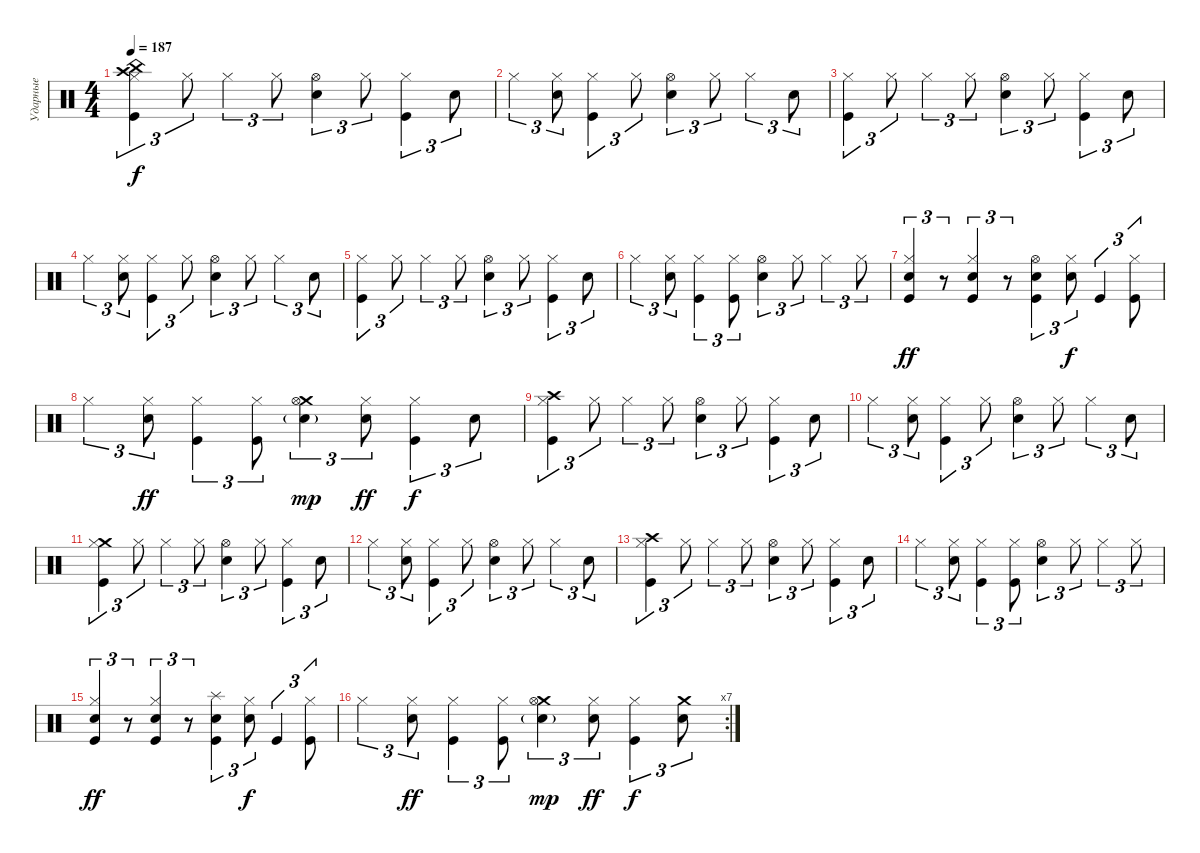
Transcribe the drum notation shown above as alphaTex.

\track ("Ударные" "Ударные") {instrument percussion}
\staff {score}
\articulation defaults
\ts (4 4)
\tempo 187
\clef neutral
\ks c
("Kick (hit)" "Crash high (hit)" "China (hit)" "Hi-Hat (closed)").4{tu (3 2) dy f} "Hi-Hat (closed)".8{tu (3 2)} "Hi-Hat (closed)".4{tu (3 2)} "Hi-Hat (closed)".8{tu (3 2)} ("Snare (hit) 2" "Hi-Hat (open)").4{tu (3 2)} "Hi-Hat (closed)".8{tu (3 2)} ("Kick (hit)" "Hi-Hat (closed)").4{tu (3 2)} "Snare (hit) 2".8{tu (3 2)} |
"Hi-Hat (closed)".4{tu (3 2)} ("Snare (hit) 2" "Hi-Hat (closed)").8{tu (3 2)} ("Kick (hit)" "Hi-Hat (closed)").4{tu (3 2)} "Hi-Hat (closed)".8{tu (3 2)} ("Snare (hit) 2" "Hi-Hat (open)").4{tu (3 2)} "Hi-Hat (closed)".8{tu (3 2)} "Hi-Hat (closed)".4{tu (3 2)} "Snare (hit) 2".8{tu (3 2)} |
("Kick (hit)" "Hi-Hat (closed)").4{tu (3 2)} "Hi-Hat (closed)".8{tu (3 2)} "Hi-Hat (closed)".4{tu (3 2)} "Hi-Hat (closed)".8{tu (3 2)} ("Snare (hit) 2" "Hi-Hat (open)").4{tu (3 2)} "Hi-Hat (closed)".8{tu (3 2)} ("Kick (hit)" "Hi-Hat (closed)").4{tu (3 2)} "Snare (hit) 2".8{tu (3 2)} |
"Hi-Hat (closed)".4{tu (3 2)} ("Snare (hit) 2" "Hi-Hat (closed)").8{tu (3 2)} ("Kick (hit)" "Hi-Hat (closed)").4{tu (3 2)} "Hi-Hat (closed)".8{tu (3 2)} ("Snare (hit) 2" "Hi-Hat (open)").4{tu (3 2)} "Hi-Hat (closed)".8{tu (3 2)} "Hi-Hat (closed)".4{tu (3 2)} "Snare (hit) 2".8{tu (3 2)} |
("Kick (hit)" "Hi-Hat (closed)").4{tu (3 2)} "Hi-Hat (closed)".8{tu (3 2)} "Hi-Hat (closed)".4{tu (3 2)} "Hi-Hat (closed)".8{tu (3 2)} ("Snare (hit) 2" "Hi-Hat (open)").4{tu (3 2)} "Hi-Hat (closed)".8{tu (3 2)} ("Kick (hit)" "Hi-Hat (closed)").4{tu (3 2)} "Snare (hit) 2".8{tu (3 2)} |
"Hi-Hat (closed)".4{tu (3 2)} ("Snare (hit) 2" "Hi-Hat (closed)").8{tu (3 2)} ("Kick (hit)" "Hi-Hat (closed)").4{tu (3 2)} ("Kick (hit)" "Hi-Hat (closed)").8{tu (3 2)} ("Snare (hit) 2" "Hi-Hat (open)").4{tu (3 2)} "Hi-Hat (closed)".8{tu (3 2)} "Hi-Hat (closed)".4{tu (3 2)} "Hi-Hat (closed)".8{tu (3 2)} |
("Kick (hit)" "Snare (hit) 2" "Hi-Hat (closed)").4{tu (3 2) dy ff} r.8{tu (3 2)} ("Kick (hit)" "Snare (hit) 2" "Hi-Hat (closed)").4{tu (3 2)} r.8{tu (3 2)} ("Kick (hit)" "Snare (hit) 2" "Hi-Hat (open)").4{tu (3 2)} ("Snare (hit) 2" "Hi-Hat (closed)").8{tu (3 2) dy f} "Kick (hit)".4{tu (3 2)} ("Kick (hit)" "Hi-Hat (closed)").8{tu (3 2)} |
"Hi-Hat (closed)".4{tu (3 2)} ("Snare (hit) 2" "Hi-Hat (closed)").8{tu (3 2) dy ff} ("Kick (hit)" "Hi-Hat (closed)").4{tu (3 2)} ("Kick (hit)" "Hi-Hat (closed)").8{tu (3 2)} ("Crash medium (hit)" "Snare (hit) 2"{g} "Hi-Hat (open)").4{tu (3 2) dy mp} ("Snare (hit) 2" "Hi-Hat (closed)").8{tu (3 2) dy ff} ("Kick (hit)" "Hi-Hat (closed)").4{tu (3 2) dy f} "Snare (hit) 2".8{tu (3 2)} |
("Kick (hit)" "Crash high (hit)" "Hi-Hat (closed)").4{tu (3 2)} "Hi-Hat (closed)".8{tu (3 2)} "Hi-Hat (closed)".4{tu (3 2)} "Hi-Hat (closed)".8{tu (3 2)} ("Snare (hit) 2" "Hi-Hat (open)").4{tu (3 2)} "Hi-Hat (closed)".8{tu (3 2)} ("Kick (hit)" "Hi-Hat (closed)").4{tu (3 2)} "Snare (hit) 2".8{tu (3 2)} |
"Hi-Hat (closed)".4{tu (3 2)} ("Snare (hit) 2" "Hi-Hat (closed)").8{tu (3 2)} ("Kick (hit)" "Hi-Hat (closed)").4{tu (3 2)} "Hi-Hat (closed)".8{tu (3 2)} ("Snare (hit) 2" "Hi-Hat (open)").4{tu (3 2)} "Hi-Hat (closed)".8{tu (3 2)} "Hi-Hat (closed)".4{tu (3 2)} "Snare (hit) 2".8{tu (3 2)} |
("Kick (hit)" "Crash medium (hit)" "Hi-Hat (closed)").4{tu (3 2)} "Hi-Hat (closed)".8{tu (3 2)} "Hi-Hat (closed)".4{tu (3 2)} "Hi-Hat (closed)".8{tu (3 2)} ("Snare (hit) 2" "Hi-Hat (open)").4{tu (3 2)} "Hi-Hat (closed)".8{tu (3 2)} ("Kick (hit)" "Hi-Hat (closed)").4{tu (3 2)} "Snare (hit) 2".8{tu (3 2)} |
"Hi-Hat (closed)".4{tu (3 2)} ("Snare (hit) 2" "Hi-Hat (closed)").8{tu (3 2)} ("Kick (hit)" "Hi-Hat (closed)").4{tu (3 2)} "Hi-Hat (closed)".8{tu (3 2)} ("Snare (hit) 2" "Hi-Hat (open)").4{tu (3 2)} "Hi-Hat (closed)".8{tu (3 2)} "Hi-Hat (closed)".4{tu (3 2)} "Snare (hit) 2".8{tu (3 2)} |
("Kick (hit)" "Crash high (hit)" "Hi-Hat (closed)").4{tu (3 2)} "Hi-Hat (closed)".8{tu (3 2)} "Hi-Hat (closed)".4{tu (3 2)} "Hi-Hat (closed)".8{tu (3 2)} ("Snare (hit) 2" "Hi-Hat (open)").4{tu (3 2)} "Hi-Hat (closed)".8{tu (3 2)} ("Kick (hit)" "Hi-Hat (closed)").4{tu (3 2)} "Snare (hit) 2".8{tu (3 2)} |
"Hi-Hat (closed)".4{tu (3 2)} ("Snare (hit) 2" "Hi-Hat (closed)").8{tu (3 2)} ("Kick (hit)" "Hi-Hat (closed)").4{tu (3 2)} ("Kick (hit)" "Hi-Hat (closed)").8{tu (3 2)} ("Snare (hit) 2" "Hi-Hat (open)").4{tu (3 2)} "Hi-Hat (closed)".8{tu (3 2)} "Hi-Hat (closed)".4{tu (3 2)} "Hi-Hat (closed)".8{tu (3 2)} |
("Kick (hit)" "Snare (hit) 2" "Hi-Hat (closed)").4{tu (3 2) dy ff} r.8{tu (3 2)} ("Kick (hit)" "Snare (hit) 2" "Hi-Hat (closed)").4{tu (3 2)} r.8{tu (3 2)} ("Kick (hit)" "Snare (hit) 2" "Splash (hit)").4{tu (3 2)} ("Snare (hit) 2" "Hi-Hat (closed)").8{tu (3 2) dy f} "Kick (hit)".4{tu (3 2)} ("Kick (hit)" "Hi-Hat (closed)").8{tu (3 2)} |
\rc 7 "Hi-Hat (closed)".4{tu (3 2)}
("Snare (hit) 2" "Hi-Hat (closed)").8{tu (3 2) dy ff} ("Kick (hit)" "Hi-Hat (closed)").4{tu (3 2)} ("Kick (hit)" "Hi-Hat (closed)").8{tu (3 2)} ("Crash medium (hit)" "Snare (hit) 2"{g} "Hi-Hat (open)").4{tu (3 2) dy mp} ("Snare (hit) 2" "Hi-Hat (closed)").8{tu (3 2) dy ff} ("Kick (hit)" "Hi-Hat (closed)").4{tu (3 2) dy f} ("Crash medium (hit)" "Snare (hit) 2").8{tu (3 2)}
